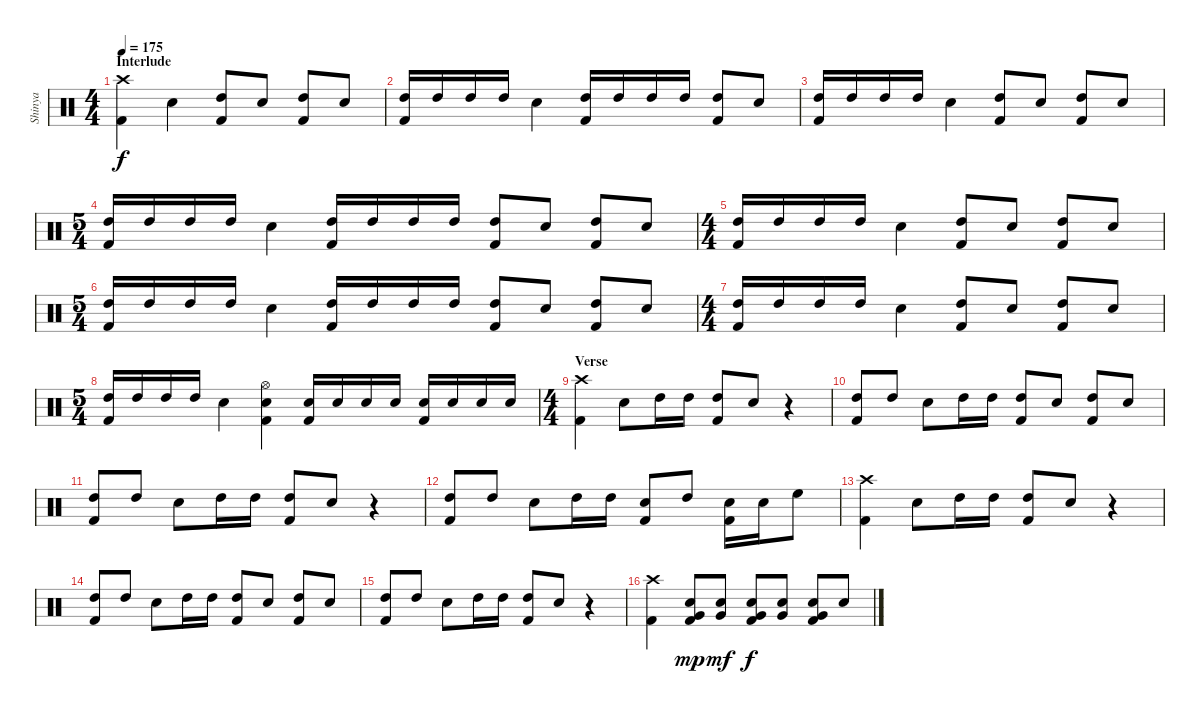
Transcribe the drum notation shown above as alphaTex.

\track ("Shinya" "Shinya") {instrument percussion}
\staff {score}
\articulation defaults
\ts (4 4)
\section ("" "Interlude")
\tempo 175
\clef neutral
\ks c
("Crash high (hit)" "Kick (hit) 2").4{dy f} "Snare (hit) 2".4 ("Kick (hit) 2" "High Tom (hit)").8 "Snare (hit) 2".8 ("Kick (hit) 2" "High Tom (hit)").8 "Snare (hit) 2".8 |
("Kick (hit) 2" "High Tom (hit)").16 "High Tom (hit)".16 "High Tom (hit)".16 "High Tom (hit)".16 "Snare (hit) 2".4 ("Kick (hit) 2" "High Tom (hit)").16 "High Tom (hit)".16 "High Tom (hit)".16 "High Tom (hit)".16 ("High Tom (hit)" "Kick (hit) 2").8 "Snare (hit) 2".8 |
("Kick (hit) 2" "High Tom (hit)").16 "High Tom (hit)".16 "High Tom (hit)".16 "High Tom (hit)".16 "Snare (hit) 2".4 ("Kick (hit) 2" "High Tom (hit)").8 "Snare (hit) 2".8 ("Kick (hit) 2" "High Tom (hit)").8 "Snare (hit) 2".8 |
\ts (5 4)
("Kick (hit) 2" "High Tom (hit)").16 "High Tom (hit)".16 "High Tom (hit)".16 "High Tom (hit)".16 "Snare (hit) 2".4 ("Kick (hit) 2" "High Tom (hit)").16 "High Tom (hit)".16 "High Tom (hit)".16 "High Tom (hit)".16 ("High Tom (hit)" "Kick (hit) 2").8 "Snare (hit) 2".8 ("High Tom (hit)" "Kick (hit) 2").8 "Snare (hit) 2".8 |
\ts (4 4)
("Kick (hit) 2" "High Tom (hit)").16 "High Tom (hit)".16 "High Tom (hit)".16 "High Tom (hit)".16 "Snare (hit) 2".4 ("Kick (hit) 2" "High Tom (hit)").8 "Snare (hit) 2".8 ("Kick (hit) 2" "High Tom (hit)").8 "Snare (hit) 2".8 |
\ts (5 4)
("Kick (hit) 2" "High Tom (hit)").16 "High Tom (hit)".16 "High Tom (hit)".16 "High Tom (hit)".16 "Snare (hit) 2".4 ("Kick (hit) 2" "High Tom (hit)").16 "High Tom (hit)".16 "High Tom (hit)".16 "High Tom (hit)".16 ("High Tom (hit)" "Kick (hit) 2").8 "Snare (hit) 2".8 ("High Tom (hit)" "Kick (hit) 2").8 "Snare (hit) 2".8 |
\ts (4 4)
("Kick (hit) 2" "High Tom (hit)").16 "High Tom (hit)".16 "High Tom (hit)".16 "High Tom (hit)".16 "Snare (hit) 2".4 ("Kick (hit) 2" "High Tom (hit)").8 "Snare (hit) 2".8 ("Kick (hit) 2" "High Tom (hit)").8 "Snare (hit) 2".8 |
\ts (5 4)
("Kick (hit) 2" "High Tom (hit)").16 "High Tom (hit)".16 "High Tom (hit)".16 "High Tom (hit)".16 "Snare (hit) 2".4 ("Hi-Hat (open)" "Snare (hit) 2" "Kick (hit) 2").4 ("Kick (hit) 2" "Snare (hit) 2").16 "Snare (hit) 2".16 "Snare (hit) 2".16 "Snare (hit) 2".16 ("Kick (hit) 2" "Snare (hit) 2").16 "Snare (hit) 2".16 "Snare (hit) 2".16 "Snare (hit) 2".16 |
\ts (4 4)
\section ("" "Verse")
("Crash high (hit)" "Kick (hit) 2").4 "Snare (hit) 2".8 "High Tom (hit)".16 "High Tom (hit)".16 ("Kick (hit) 2" "High Tom (hit)").8 "Snare (hit) 2".8 r.4 |
("Kick (hit) 2" "High Tom (hit)").8 "High Tom (hit)".8 "Snare (hit) 2".8 "High Tom (hit)".16 "High Tom (hit)".16 ("Kick (hit) 2" "High Tom (hit)").8 "Snare (hit) 2".8 ("Kick (hit) 2" "High Tom (hit)").8 "Snare (hit) 2".8 |
("Kick (hit) 2" "High Tom (hit)").8 "High Tom (hit)".8 "Snare (hit) 2".8 "High Tom (hit)".16 "High Tom (hit)".16 ("Kick (hit) 2" "High Tom (hit)").8 "Snare (hit) 2".8 r.4 |
("Kick (hit) 2" "High Tom (hit)").8 "High Tom (hit)".8 "Snare (hit) 2".8 "High Tom (hit)".16 "High Tom (hit)".16 ("Snare (hit) 2" "Kick (hit) 2").8 "High Tom (hit)".8 ("Snare (hit) 2" "Kick (hit) 2").16 "Snare (hit) 2".16 "High Floor Tom (hit)".8 |
("Crash high (hit)" "Kick (hit) 2").4 "Snare (hit) 2".8 "High Tom (hit)".16 "High Tom (hit)".16 ("Kick (hit) 2" "High Tom (hit)").8 "Snare (hit) 2".8 r.4 |
("Kick (hit) 2" "High Tom (hit)").8 "High Tom (hit)".8 "Snare (hit) 2".8 "High Tom (hit)".16 "High Tom (hit)".16 ("Kick (hit) 2" "High Tom (hit)").8 "Snare (hit) 2".8 ("Kick (hit) 2" "High Tom (hit)").8 "Snare (hit) 2".8 |
("Kick (hit) 2" "High Tom (hit)").8 "High Tom (hit)".8 "Snare (hit) 2".8 "High Tom (hit)".16 "High Tom (hit)".16 ("Kick (hit) 2" "High Tom (hit)").8 "Snare (hit) 2".8 r.4 |
("Crash high (hit)" "Kick (hit) 2").4 ("Kick (hit) 2" "Snare (hit) 2" "Very Low Tom (hit)").8{dy mp} ("Snare (hit) 2" "Very Low Tom (hit)").8{dy mf} ("Kick (hit) 2" "Snare (hit) 2" "Very Low Tom (hit)").8{dy f} ("Snare (hit) 2" "Very Low Tom (hit)").8 ("Kick (hit) 2" "Snare (hit) 2" "Very Low Tom (hit)").8 "Snare (hit) 2".8
